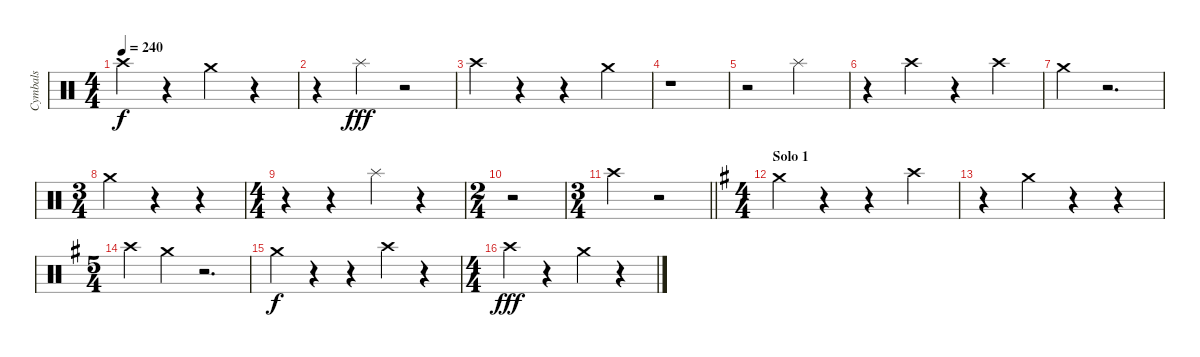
\track ("Cymbals" "Cymbals") {instrument percussion}
\staff {score}
\articulation defaults
\ts (4 4)
\tempo 240
\clef neutral
\ks c "Crash high (hit)".4{dy f}
r.4 "Crash medium (hit)".4 r.4 |
r.4 "Splash (hit)".4{dy fff} r.2 |
"Crash high (hit)".4 r.4 r.4 "Crash medium (hit)".4 |
r.1 |
r.2 "Splash (hit)".2 |
r.4 "Crash high (hit)".4 r.4 "Crash high (hit)".4 |
"Crash medium (hit)".4 r.2{d} |
\ts (3 4)
"Crash medium (hit)".4 r.4 r.4 |
\ts (4 4)
r.4 r.4 "Splash (hit)".4 r.4 |
\ts (2 4)
r.2 |
\ts (3 4)
\barLineRight lightlight "Crash high (hit)".4
r.2 |
\ts (4 4)
\section ("" "Solo 1")
\ks g "Crash medium (hit)".4
r.4 r.4 "Crash high (hit)".4 |
r.4 "Crash medium (hit)".4 r.4 r.4 |
\ts (5 4)
"Crash high (hit)".4 "Crash medium (hit)".4 r.2{d} |
"Crash medium (hit)".4{dy f} r.4 r.4 "Crash high (hit)".4 r.4 |
\ts (4 4)
"Crash high (hit)".4{dy fff} r.4 "Crash medium (hit)".4 r.4
